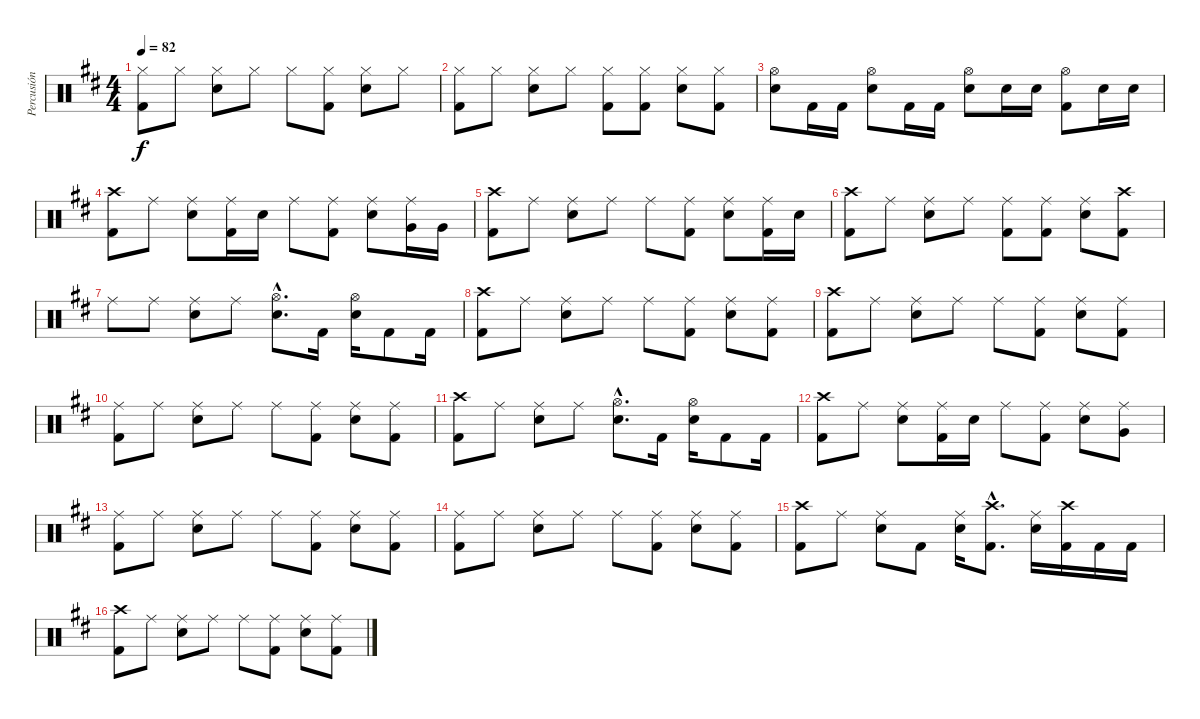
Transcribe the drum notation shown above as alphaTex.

\track ("Percusión" "Percusión") {instrument percussion}
\staff {score}
\articulation defaults
\ts (4 4)
\tempo 82
\clef neutral
\ks d
("Hi-Hat (closed)" "Kick (hit) 2").8{dy f} "Hi-Hat (closed)".8 ("Hi-Hat (closed)" "Snare (hit) 2").8 "Hi-Hat (closed)".8 "Hi-Hat (closed)".8 ("Hi-Hat (closed)" "Kick (hit) 2").8 ("Hi-Hat (closed)" "Snare (hit) 2").8 "Hi-Hat (closed)".8 |
("Hi-Hat (closed)" "Kick (hit) 2").8 "Hi-Hat (closed)".8 ("Hi-Hat (closed)" "Snare (hit) 2").8 "Hi-Hat (closed)".8 ("Hi-Hat (closed)" "Kick (hit) 2").8 ("Hi-Hat (closed)" "Kick (hit) 2").8 ("Hi-Hat (closed)" "Snare (hit) 2").8 ("Hi-Hat (closed)" "Kick (hit) 2").8 |
("Hi-Hat (open)" "Snare (hit) 2").8 "Kick (hit) 2".16 "Kick (hit) 2".16 ("Hi-Hat (open)" "Snare (hit) 2").8 "Kick (hit) 2".16 "Kick (hit) 2".16 ("Hi-Hat (open)" "Snare (hit) 2").8 "Snare (hit) 2".16 "Snare (hit) 2".16 ("Hi-Hat (open)" "Kick (hit) 2").8 "Snare (hit) 2".16 "Snare (hit) 2".16 |
("Crash high (hit)" "Kick (hit) 2").8 "Ride (middle)".8 ("Ride (middle)" "Snare (hit) 2").8 ("Ride (middle)" "Kick (hit) 2").16 "Snare (hit) 2".16 "Ride (middle)".8 ("Ride (middle)" "Kick (hit) 2").8 ("Ride (middle)" "Snare (hit) 2").8 ("Ride (middle)" "Very Low Tom (hit)").16 "Very Low Tom (hit)".16 |
("Crash high (hit)" "Kick (hit) 2").8 "Ride (middle)".8 ("Ride (middle)" "Snare (hit) 2").8 "Ride (middle)".8 "Ride (middle)".8 ("Ride (middle)" "Kick (hit) 2").8 ("Ride (middle)" "Snare (hit) 2").8 ("Ride (middle)" "Kick (hit) 2").16 "Snare (hit) 2".16 |
("Crash high (hit)" "Kick (hit) 2").8 "Ride (middle)".8 ("Ride (middle)" "Snare (hit) 2").8 "Ride (middle)".8 ("Ride (middle)" "Kick (hit) 2").8 ("Ride (middle)" "Kick (hit) 2").8 ("Ride (middle)" "Snare (hit) 2").8 ("Crash high (hit)" "Kick (hit) 2").8 |
"Ride (middle)".8 "Ride (middle)".8 ("Ride (middle)" "Snare (hit) 2").8 "Ride (middle)".8 ("Hi-Hat (open)"{hac} "Snare (hit) 2"{hac}).8{d} "Kick (hit) 2".16 ("Hi-Hat (open)" "Snare (hit) 2").16 "Kick (hit) 2".8 "Kick (hit) 2".16 |
("Crash high (hit)" "Kick (hit) 2").8 "Ride (middle)".8 ("Ride (middle)" "Snare (hit) 2").8 "Ride (middle)".8 "Ride (middle)".8 ("Ride (middle)" "Kick (hit) 2").8 ("Ride (middle)" "Snare (hit) 2").8 ("Ride (middle)" "Kick (hit) 2").8 |
("Crash high (hit)" "Kick (hit) 2").8 "Ride (middle)".8 ("Ride (middle)" "Snare (hit) 2").8 "Ride (middle)".8 "Ride (middle)".8 ("Ride (middle)" "Kick (hit) 2").8 ("Ride (middle)" "Snare (hit) 2").8 ("Ride (middle)" "Kick (hit) 2").8 |
("Ride (middle)" "Kick (hit) 2").8 "Ride (middle)".8 ("Ride (middle)" "Snare (hit) 2").8 "Ride (middle)".8 "Ride (middle)".8 ("Ride (middle)" "Kick (hit) 2").8 ("Ride (middle)" "Snare (hit) 2").8 ("Ride (middle)" "Kick (hit) 2").8 |
("Crash high (hit)" "Kick (hit) 2").8 "Ride (middle)".8 ("Ride (middle)" "Snare (hit) 2").8 "Ride (middle)".8 ("Hi-Hat (open)"{hac} "Snare (hit) 2"{hac}).8{d} "Kick (hit) 2".16 ("Hi-Hat (open)" "Snare (hit) 2").16 "Kick (hit) 2".8 "Kick (hit) 2".16 |
("Crash high (hit)" "Kick (hit) 2").8 "Ride (middle)".8 ("Ride (middle)" "Snare (hit) 2").8 ("Ride (middle)" "Kick (hit) 2").16 "Snare (hit) 2".16 "Ride (middle)".8 ("Ride (middle)" "Kick (hit) 2").8 ("Ride (middle)" "Snare (hit) 2").8 ("Ride (middle)" "Very Low Tom (hit)").8 |
("Ride (middle)" "Kick (hit) 2").8 "Ride (middle)".8 ("Ride (middle)" "Snare (hit) 2").8 "Ride (middle)".8 "Ride (middle)".8 ("Ride (middle)" "Kick (hit) 2").8 ("Ride (middle)" "Snare (hit) 2").8 ("Ride (middle)" "Kick (hit) 2").8 |
("Ride (middle)" "Kick (hit) 2").8 "Ride (middle)".8 ("Ride (middle)" "Snare (hit) 2").8 "Ride (middle)".8 "Ride (middle)".8 ("Ride (middle)" "Kick (hit) 2").8 ("Ride (middle)" "Snare (hit) 2").8 ("Ride (middle)" "Kick (hit) 2").8 |
("Crash high (hit)" "Kick (hit) 2").8 "Ride (middle)".8 ("Ride (middle)" "Snare (hit) 2").8 "Kick (hit) 2".8 ("Ride (middle)" "Snare (hit) 2").16 ("Crash high (hit)"{hac} "Kick (hit) 2"{hac}).8{d} ("Ride (middle)" "Snare (hit) 2").16 ("Crash high (hit)" "Kick (hit) 2").16 "Kick (hit) 2".16 "Kick (hit) 2".16 |
("Crash high (hit)" "Kick (hit) 2").8 "Ride (middle)".8 ("Ride (middle)" "Snare (hit) 2").8 "Ride (middle)".8 "Ride (middle)".8 ("Ride (middle)" "Kick (hit) 2").8 ("Ride (middle)" "Snare (hit) 2").8 ("Ride (middle)" "Kick (hit) 2").8
